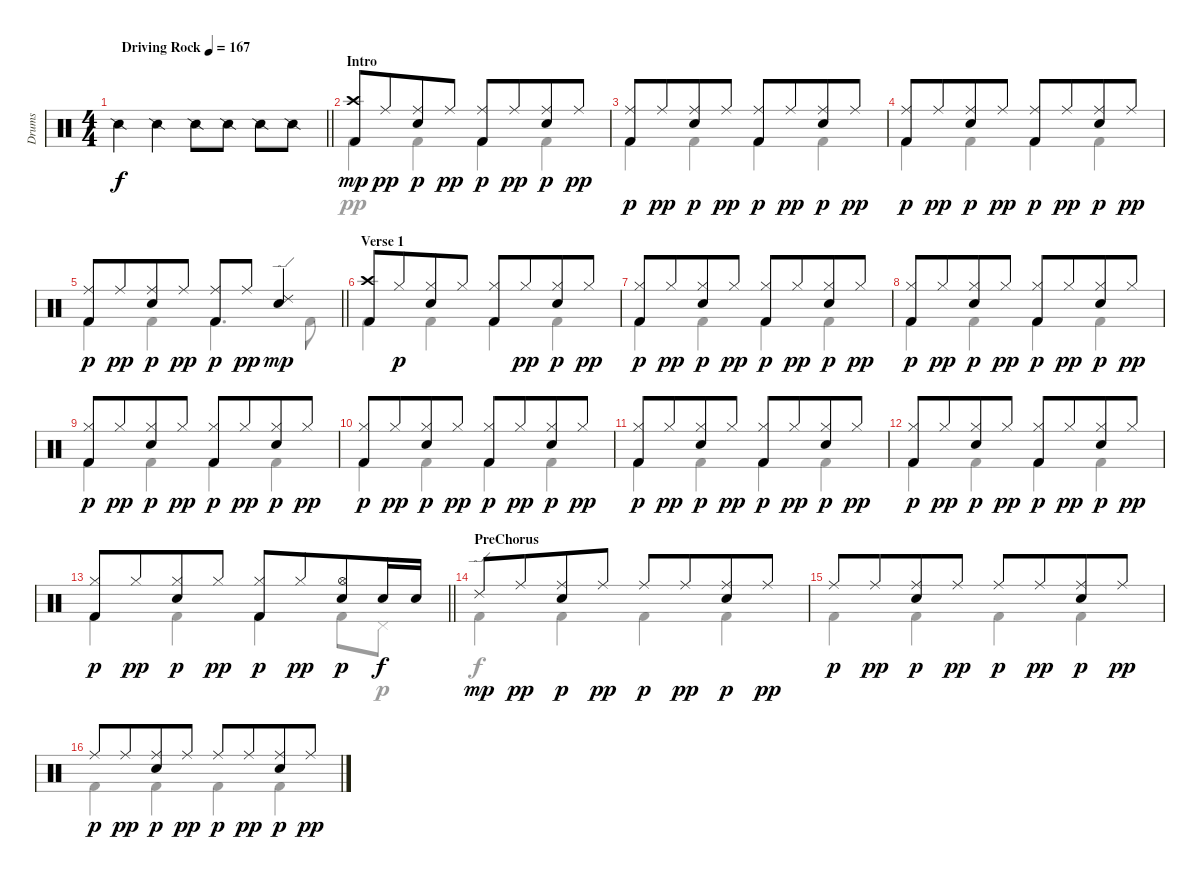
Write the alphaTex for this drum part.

\track ("Drums" "Drums") {instrument percussion}
\staff {score}
\articulation defaults
\voice
\ts (4 4)
\tempo (167 "Driving Rock")
\clef neutral
\barLineRight lightlight
\ks c "Snare (side stick) 2".4{dy f} "Snare (side stick) 2".4 "Snare (side stick) 2".8 "Snare (side stick) 2".8 "Snare (side stick) 2".8 "Snare (side stick) 2".8
|
\section ("" "Intro")
\ks aminor
("Crash high (hit)" "Kick (hit) 2").8{dy mp} "Ride (middle)".8{dy pp beam merge} ("Ride (middle)" "Electric Snare (hit)").8{dy p} "Ride (middle)".8{dy pp} ("Ride (middle)" "Kick (hit) 2").8{dy p} "Ride (middle)".8{dy pp beam merge} ("Ride (middle)" "Electric Snare (hit)").8{dy p} "Ride (middle)".8{dy pp} |
("Ride (middle)" "Kick (hit) 2").8{dy p} "Ride (middle)".8{dy pp beam merge} ("Ride (middle)" "Electric Snare (hit)").8{dy p} "Ride (middle)".8{dy pp} ("Ride (middle)" "Kick (hit) 2").8{dy p} "Ride (middle)".8{dy pp beam merge} ("Ride (middle)" "Electric Snare (hit)").8{dy p} "Ride (middle)".8{dy pp} |
("Ride (middle)" "Kick (hit) 2").8{dy p} "Ride (middle)".8{dy pp beam merge} ("Ride (middle)" "Electric Snare (hit)").8{dy p} "Ride (middle)".8{dy pp} ("Ride (middle)" "Kick (hit) 2").8{dy p} "Ride (middle)".8{dy pp beam merge} ("Ride (middle)" "Electric Snare (hit)").8{dy p} "Ride (middle)".8{dy pp} |
\barLineRight lightlight
("Ride (middle)" "Kick (hit) 2").8{dy p} "Ride (middle)".8{dy pp beam merge} ("Ride (middle)" "Electric Snare (hit)").8{dy p} "Ride (middle)".8{dy pp} ("Ride (middle)" "Kick (hit) 2").8{dy p} "Ride (middle)".8{dy pp} ("Ride (edge) 2" "Electric Snare (hit)").4{dy mp} |
\section ("" "Verse 1")
("Crash high (hit)" "Kick (hit) 2").8 "Hi-Hat (closed)".8{dy p beam merge} ("Hi-Hat (closed)" "Electric Snare (hit)").8 "Hi-Hat (closed)".8 ("Hi-Hat (closed)" "Kick (hit) 2").8 "Hi-Hat (closed)".8{dy pp beam merge} ("Hi-Hat (closed)" "Electric Snare (hit)").8{dy p} "Hi-Hat (closed)".8{dy pp} |
("Hi-Hat (closed)" "Kick (hit) 2").8{dy p} "Hi-Hat (closed)".8{dy pp beam merge} ("Hi-Hat (closed)" "Electric Snare (hit)").8{dy p} "Hi-Hat (closed)".8{dy pp} ("Hi-Hat (closed)" "Kick (hit) 2").8{dy p} "Hi-Hat (closed)".8{dy pp beam merge} ("Hi-Hat (closed)" "Electric Snare (hit)").8{dy p} "Hi-Hat (closed)".8{dy pp} |
("Hi-Hat (closed)" "Kick (hit) 2").8{dy p} "Hi-Hat (closed)".8{dy pp beam merge} ("Hi-Hat (closed)" "Electric Snare (hit)").8{dy p} "Hi-Hat (closed)".8{dy pp} ("Hi-Hat (closed)" "Kick (hit) 2").8{dy p} "Hi-Hat (closed)".8{dy pp beam merge} ("Hi-Hat (closed)" "Electric Snare (hit)").8{dy p} "Hi-Hat (closed)".8{dy pp} |
("Hi-Hat (closed)" "Kick (hit) 2").8{dy p} "Hi-Hat (closed)".8{dy pp beam merge} ("Hi-Hat (closed)" "Electric Snare (hit)").8{dy p} "Hi-Hat (closed)".8{dy pp} ("Hi-Hat (closed)" "Kick (hit) 2").8{dy p} "Hi-Hat (closed)".8{dy pp beam merge} ("Hi-Hat (closed)" "Electric Snare (hit)").8{dy p} "Hi-Hat (closed)".8{dy pp} |
("Hi-Hat (closed)" "Kick (hit) 2").8{dy p} "Hi-Hat (closed)".8{dy pp beam merge} ("Hi-Hat (closed)" "Electric Snare (hit)").8{dy p} "Hi-Hat (closed)".8{dy pp} ("Hi-Hat (closed)" "Kick (hit) 2").8{dy p} "Hi-Hat (closed)".8{dy pp beam merge} ("Hi-Hat (closed)" "Electric Snare (hit)").8{dy p} "Hi-Hat (closed)".8{dy pp} |
("Hi-Hat (closed)" "Kick (hit) 2").8{dy p} "Hi-Hat (closed)".8{dy pp beam merge} ("Hi-Hat (closed)" "Electric Snare (hit)").8{dy p} "Hi-Hat (closed)".8{dy pp} ("Hi-Hat (closed)" "Kick (hit) 2").8{dy p} "Hi-Hat (closed)".8{dy pp beam merge} ("Hi-Hat (closed)" "Electric Snare (hit)").8{dy p} "Hi-Hat (closed)".8{dy pp} |
("Hi-Hat (closed)" "Kick (hit) 2").8{dy p} "Hi-Hat (closed)".8{dy pp beam merge} ("Hi-Hat (closed)" "Electric Snare (hit)").8{dy p} "Hi-Hat (closed)".8{dy pp} ("Hi-Hat (closed)" "Kick (hit) 2").8{dy p} "Hi-Hat (closed)".8{dy pp beam merge} ("Hi-Hat (closed)" "Electric Snare (hit)").8{dy p} "Hi-Hat (closed)".8{dy pp} |
\barLineRight lightlight
("Hi-Hat (closed)" "Kick (hit) 2").8{dy p} "Hi-Hat (closed)".8{dy pp beam merge} ("Hi-Hat (closed)" "Electric Snare (hit)").8{dy p} "Hi-Hat (closed)".8{dy pp} ("Hi-Hat (closed)" "Kick (hit) 2").8{dy p} "Hi-Hat (closed)".8{dy pp beam merge} ("Hi-Hat (open)" "Electric Snare (hit)").8{dy p} "Electric Snare (hit)".16{dy f} "Electric Snare (hit)".16 |
\section ("" "PreChorus")
"Ride (edge) 2".8{dy mp} "Ride (middle)".8{dy pp beam merge} ("Ride (middle)" "Electric Snare (hit)").8{dy p} "Ride (middle)".8{dy pp} "Ride (middle)".8{dy p} "Ride (middle)".8{dy pp beam merge} ("Ride (middle)" "Electric Snare (hit)").8{dy p} "Ride (middle)".8{dy pp} |
"Ride (middle)".8{dy p} "Ride (middle)".8{dy pp beam merge} ("Ride (middle)" "Electric Snare (hit)").8{dy p} "Ride (middle)".8{dy pp} "Ride (middle)".8{dy p} "Ride (middle)".8{dy pp beam merge} ("Ride (middle)" "Electric Snare (hit)").8{dy p} "Ride (middle)".8{dy pp} |
"Ride (middle)".8{dy p} "Ride (middle)".8{dy pp beam merge} ("Ride (middle)" "Electric Snare (hit)").8{dy p} "Ride (middle)".8{dy pp} "Ride (middle)".8{dy p} "Ride (middle)".8{dy pp beam merge} ("Ride (middle)" "Electric Snare (hit)").8{dy p} "Ride (middle)".8{dy pp}
\voice
\clef neutral
\ottava regular
\simile none
\barLineRight lightlight
\ks c
|
\ks aminor "Kick (hit) 2".4 "Kick (hit) 2".4 "Kick (hit) 2".4 "Kick (hit) 2".4
|
"Kick (hit) 2".4 "Kick (hit) 2".4 "Kick (hit) 2".4 "Kick (hit) 2".4 |
"Kick (hit) 2".4 "Kick (hit) 2".4 "Kick (hit) 2".4 "Kick (hit) 2".4 |
\barLineRight lightlight "Kick (hit) 2".4 "Kick (hit) 2".4 "Kick (hit) 2".4{d} "Kick (hit) 2".8
|
"Kick (hit) 2".4 "Kick (hit) 2".4 "Kick (hit) 2".4 "Kick (hit) 2".4 |
"Kick (hit) 2".4 "Kick (hit) 2".4 "Kick (hit) 2".4 "Kick (hit) 2".4 |
"Kick (hit) 2".4 "Kick (hit) 2".4 "Kick (hit) 2".4 "Kick (hit) 2".4 |
"Kick (hit) 2".4 "Kick (hit) 2".4 "Kick (hit) 2".4 "Kick (hit) 2".4 |
"Kick (hit) 2".4 "Kick (hit) 2".4 "Kick (hit) 2".4 "Kick (hit) 2".4 |
"Kick (hit) 2".4 "Kick (hit) 2".4 "Kick (hit) 2".4 "Kick (hit) 2".4 |
"Kick (hit) 2".4 "Kick (hit) 2".4 "Kick (hit) 2".4 "Kick (hit) 2".4 |
\barLineRight lightlight "Kick (hit) 2".4 "Kick (hit) 2".4 "Kick (hit) 2".4 "Kick (hit) 2".8 "Pedal Hi-Hat (hit)".8{dy p}
|
"Kick (hit) 2".4{dy f} "Kick (hit) 2".4 "Kick (hit) 2".4 "Kick (hit) 2".4 |
"Kick (hit) 2".4 "Kick (hit) 2".4 "Kick (hit) 2".4 "Kick (hit) 2".4 |
"Kick (hit) 2".4 "Kick (hit) 2".4 "Kick (hit) 2".4 "Kick (hit) 2".4
